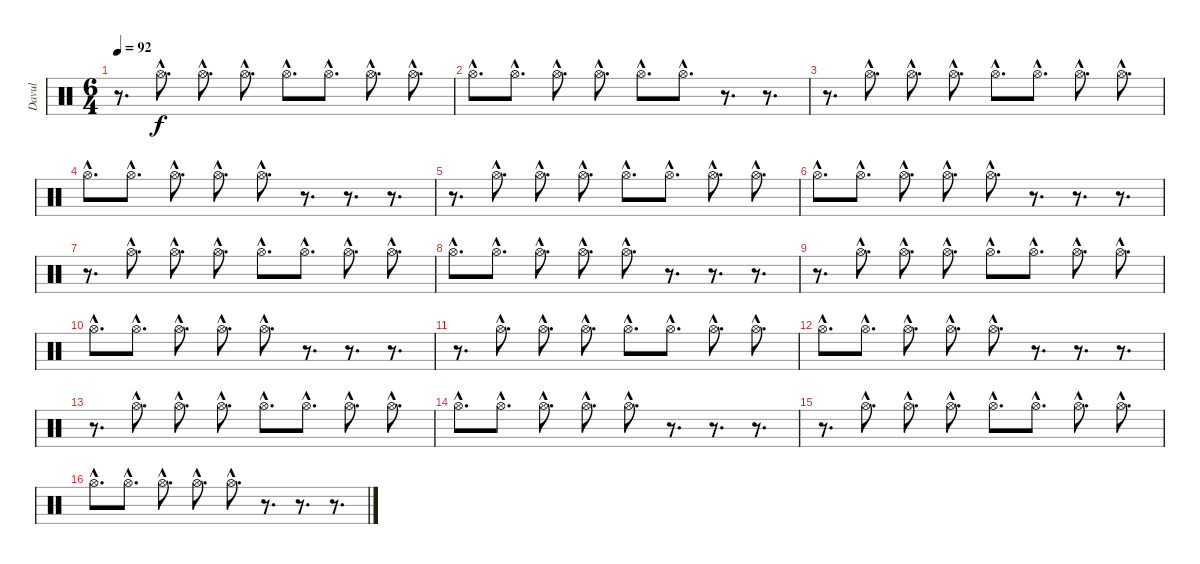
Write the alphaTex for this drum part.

\track ("Davul" "Davul") {instrument percussion}
\staff {score}
\articulation defaults
\ts (6 4)
\tempo 92
\clef neutral
\ks c
r.8{d dy f} "Hi-Hat (open)"{hac}.8{d} "Hi-Hat (open)"{hac}.8{d} "Hi-Hat (open)"{hac}.8{d} "Hi-Hat (open)"{hac}.8{d} "Hi-Hat (open)"{hac}.8{d} "Hi-Hat (open)"{hac}.8{d} "Hi-Hat (open)"{hac}.8{d} |
"Hi-Hat (open)"{hac}.8{d} "Hi-Hat (open)"{hac}.8{d} "Hi-Hat (open)"{hac}.8{d} "Hi-Hat (open)"{hac}.8{d} "Hi-Hat (open)"{hac}.8{d} "Hi-Hat (open)"{hac}.8{d} r.8{d} r.8{d} |
r.8{d} "Hi-Hat (open)"{hac}.8{d} "Hi-Hat (open)"{hac}.8{d} "Hi-Hat (open)"{hac}.8{d} "Hi-Hat (open)"{hac}.8{d} "Hi-Hat (open)"{hac}.8{d} "Hi-Hat (open)"{hac}.8{d} "Hi-Hat (open)"{hac}.8{d} |
"Hi-Hat (open)"{hac}.8{d} "Hi-Hat (open)"{hac}.8{d} "Hi-Hat (open)"{hac}.8{d} "Hi-Hat (open)"{hac}.8{d} "Hi-Hat (open)"{hac}.8{d} r.8{d} r.8{d} r.8{d} |
r.8{d} "Hi-Hat (open)"{hac}.8{d} "Hi-Hat (open)"{hac}.8{d} "Hi-Hat (open)"{hac}.8{d} "Hi-Hat (open)"{hac}.8{d} "Hi-Hat (open)"{hac}.8{d} "Hi-Hat (open)"{hac}.8{d} "Hi-Hat (open)"{hac}.8{d} |
"Hi-Hat (open)"{hac}.8{d} "Hi-Hat (open)"{hac}.8{d} "Hi-Hat (open)"{hac}.8{d} "Hi-Hat (open)"{hac}.8{d} "Hi-Hat (open)"{hac}.8{d} r.8{d} r.8{d} r.8{d} |
r.8{d} "Hi-Hat (open)"{hac}.8{d} "Hi-Hat (open)"{hac}.8{d} "Hi-Hat (open)"{hac}.8{d} "Hi-Hat (open)"{hac}.8{d} "Hi-Hat (open)"{hac}.8{d} "Hi-Hat (open)"{hac}.8{d} "Hi-Hat (open)"{hac}.8{d} |
"Hi-Hat (open)"{hac}.8{d} "Hi-Hat (open)"{hac}.8{d} "Hi-Hat (open)"{hac}.8{d} "Hi-Hat (open)"{hac}.8{d} "Hi-Hat (open)"{hac}.8{d} r.8{d} r.8{d} r.8{d} |
r.8{d} "Hi-Hat (open)"{hac}.8{d} "Hi-Hat (open)"{hac}.8{d} "Hi-Hat (open)"{hac}.8{d} "Hi-Hat (open)"{hac}.8{d} "Hi-Hat (open)"{hac}.8{d} "Hi-Hat (open)"{hac}.8{d} "Hi-Hat (open)"{hac}.8{d} |
"Hi-Hat (open)"{hac}.8{d} "Hi-Hat (open)"{hac}.8{d} "Hi-Hat (open)"{hac}.8{d} "Hi-Hat (open)"{hac}.8{d} "Hi-Hat (open)"{hac}.8{d} r.8{d} r.8{d} r.8{d} |
r.8{d} "Hi-Hat (open)"{hac}.8{d} "Hi-Hat (open)"{hac}.8{d} "Hi-Hat (open)"{hac}.8{d} "Hi-Hat (open)"{hac}.8{d} "Hi-Hat (open)"{hac}.8{d} "Hi-Hat (open)"{hac}.8{d} "Hi-Hat (open)"{hac}.8{d} |
"Hi-Hat (open)"{hac}.8{d} "Hi-Hat (open)"{hac}.8{d} "Hi-Hat (open)"{hac}.8{d} "Hi-Hat (open)"{hac}.8{d} "Hi-Hat (open)"{hac}.8{d} r.8{d} r.8{d} r.8{d} |
r.8{d} "Hi-Hat (open)"{hac}.8{d} "Hi-Hat (open)"{hac}.8{d} "Hi-Hat (open)"{hac}.8{d} "Hi-Hat (open)"{hac}.8{d} "Hi-Hat (open)"{hac}.8{d} "Hi-Hat (open)"{hac}.8{d} "Hi-Hat (open)"{hac}.8{d} |
"Hi-Hat (open)"{hac}.8{d} "Hi-Hat (open)"{hac}.8{d} "Hi-Hat (open)"{hac}.8{d} "Hi-Hat (open)"{hac}.8{d} "Hi-Hat (open)"{hac}.8{d} r.8{d} r.8{d} r.8{d} |
r.8{d} "Hi-Hat (open)"{hac}.8{d} "Hi-Hat (open)"{hac}.8{d} "Hi-Hat (open)"{hac}.8{d} "Hi-Hat (open)"{hac}.8{d} "Hi-Hat (open)"{hac}.8{d} "Hi-Hat (open)"{hac}.8{d} "Hi-Hat (open)"{hac}.8{d} |
"Hi-Hat (open)"{hac}.8{d} "Hi-Hat (open)"{hac}.8{d} "Hi-Hat (open)"{hac}.8{d} "Hi-Hat (open)"{hac}.8{d} "Hi-Hat (open)"{hac}.8{d} r.8{d} r.8{d} r.8{d}
